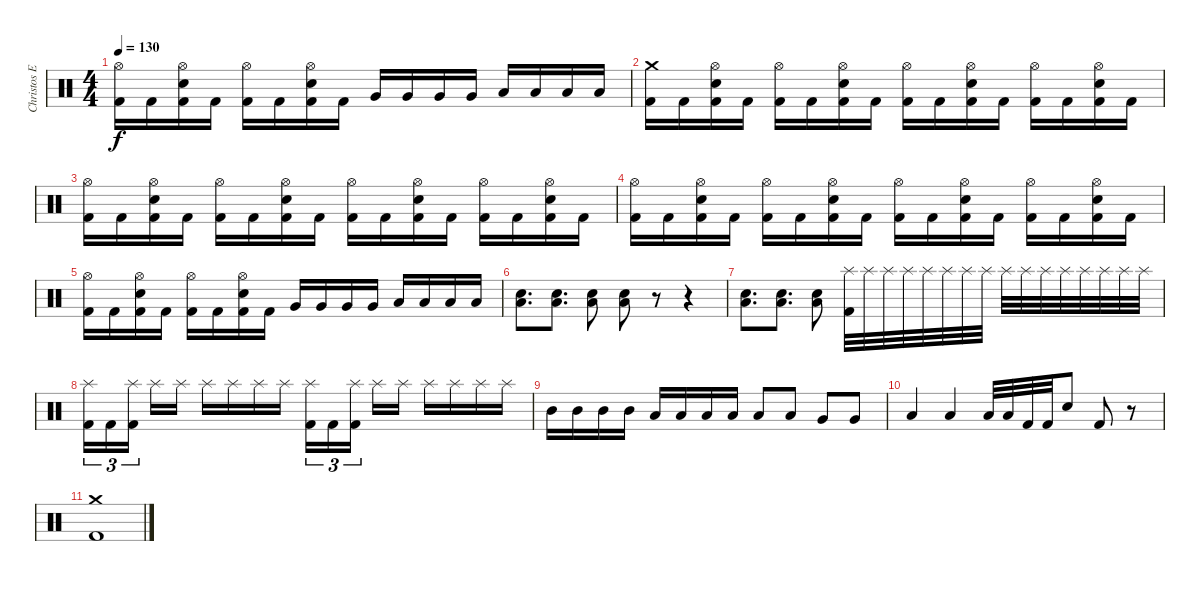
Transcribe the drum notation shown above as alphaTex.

\track ("Christos Efthimiadis" "Christos E") {instrument percussion}
\staff {score}
\articulation defaults
\ts (4 4)
\tempo 130
\clef neutral
\ks c
("Hi-Hat (open)" "Kick (hit) 2").16{dy f} "Kick (hit) 2".16 ("Snare (hit) 2" "Hi-Hat (open)" "Kick (hit) 2").16 "Kick (hit) 2".16 ("Hi-Hat (open)" "Kick (hit) 2").16 "Kick (hit) 2".16 ("Snare (hit) 2" "Hi-Hat (open)" "Kick (hit) 2").16 "Kick (hit) 2".16 "Very Low Tom (hit)".16 "Very Low Tom (hit)".16 "Very Low Tom (hit)".16 "Very Low Tom (hit)".16 "Low Floor Tom (hit)".16 "Low Floor Tom (hit)".16 "Low Floor Tom (hit)".16 "Low Floor Tom (hit)".16 |
("Crash medium (hit)" "Kick (hit) 2").16 "Kick (hit) 2".16 ("Snare (hit) 2" "Hi-Hat (open)" "Kick (hit) 2").16 "Kick (hit) 2".16 ("Hi-Hat (open)" "Kick (hit) 2").16 "Kick (hit) 2".16 ("Snare (hit) 2" "Hi-Hat (open)" "Kick (hit) 2").16 "Kick (hit) 2".16 ("Hi-Hat (open)" "Kick (hit) 2").16 "Kick (hit) 2".16 ("Snare (hit) 2" "Hi-Hat (open)" "Kick (hit) 2").16 "Kick (hit) 2".16 ("Hi-Hat (open)" "Kick (hit) 2").16 "Kick (hit) 2".16 ("Snare (hit) 2" "Hi-Hat (open)" "Kick (hit) 2").16 "Kick (hit) 2".16 |
("Hi-Hat (open)" "Kick (hit) 2").16 "Kick (hit) 2".16 ("Snare (hit) 2" "Hi-Hat (open)" "Kick (hit) 2").16 "Kick (hit) 2".16 ("Hi-Hat (open)" "Kick (hit) 2").16 "Kick (hit) 2".16 ("Snare (hit) 2" "Hi-Hat (open)" "Kick (hit) 2").16 "Kick (hit) 2".16 ("Hi-Hat (open)" "Kick (hit) 2").16 "Kick (hit) 2".16 ("Snare (hit) 2" "Hi-Hat (open)" "Kick (hit) 2").16 "Kick (hit) 2".16 ("Hi-Hat (open)" "Kick (hit) 2").16 "Kick (hit) 2".16 ("Snare (hit) 2" "Hi-Hat (open)" "Kick (hit) 2").16 "Kick (hit) 2".16 |
("Hi-Hat (open)" "Kick (hit) 2").16 "Kick (hit) 2".16 ("Snare (hit) 2" "Hi-Hat (open)" "Kick (hit) 2").16 "Kick (hit) 2".16 ("Hi-Hat (open)" "Kick (hit) 2").16 "Kick (hit) 2".16 ("Snare (hit) 2" "Hi-Hat (open)" "Kick (hit) 2").16 "Kick (hit) 2".16 ("Hi-Hat (open)" "Kick (hit) 2").16 "Kick (hit) 2".16 ("Snare (hit) 2" "Hi-Hat (open)" "Kick (hit) 2").16 "Kick (hit) 2".16 ("Hi-Hat (open)" "Kick (hit) 2").16 "Kick (hit) 2".16 ("Snare (hit) 2" "Hi-Hat (open)" "Kick (hit) 2").16 "Kick (hit) 2".16 |
("Hi-Hat (open)" "Kick (hit) 2").16 "Kick (hit) 2".16 ("Snare (hit) 2" "Hi-Hat (open)" "Kick (hit) 2").16 "Kick (hit) 2".16 ("Hi-Hat (open)" "Kick (hit) 2").16 "Kick (hit) 2".16 ("Snare (hit) 2" "Hi-Hat (open)" "Kick (hit) 2").16 "Kick (hit) 2".16 "Very Low Tom (hit)".16 "Very Low Tom (hit)".16 "Very Low Tom (hit)".16 "Very Low Tom (hit)".16 "Low Floor Tom (hit)".16 "Low Floor Tom (hit)".16 "Low Floor Tom (hit)".16 "Low Floor Tom (hit)".16 |
("Snare (hit) 2" "Low Floor Tom (hit)").8{d} ("Snare (hit) 2" "Low Floor Tom (hit)").8{d} ("Snare (hit) 2" "Low Floor Tom (hit)").8 ("Snare (hit) 2" "Low Floor Tom (hit)").8 r.8 r.4 |
("Snare (hit) 2" "Low Floor Tom (hit)").8{d} ("Snare (hit) 2" "Low Floor Tom (hit)").8{d} ("Snare (hit) 2" "Low Floor Tom (hit)").8 ("Splash (hit)" "Kick (hit) 2").32 "Splash (hit)".32 "Splash (hit)".32 "Splash (hit)".32 "Splash (hit)".32 "Splash (hit)".32 "Splash (hit)".32 "Splash (hit)".32 "Splash (hit)".32 "Splash (hit)".32 "Splash (hit)".32 "Splash (hit)".32 "Splash (hit)".32 "Splash (hit)".32 "Splash (hit)".32 "Splash (hit)".32 |
("Splash (hit)" "Kick (hit) 2").16{tu (3 2)} "Kick (hit) 2".16{tu (3 2)} ("Splash (hit)" "Kick (hit) 2").16{tu (3 2) beam splitsecondary} "Splash (hit)".16 "Splash (hit)".16 "Splash (hit)".16 "Splash (hit)".16 "Splash (hit)".16 "Splash (hit)".16 ("Splash (hit)" "Kick (hit) 2").16{tu (3 2)} "Kick (hit) 2".16{tu (3 2)} ("Splash (hit)" "Kick (hit) 2").16{tu (3 2) beam splitsecondary} "Splash (hit)".16 "Splash (hit)".16 "Splash (hit)".16 "Splash (hit)".16 "Splash (hit)".16 "Splash (hit)".16 |
"Mid Tom (hit)".16 "Mid Tom (hit)".16 "Mid Tom (hit)".16 "Mid Tom (hit)".16 "Low Tom (hit)".16 "Low Tom (hit)".16 "Low Tom (hit)".16 "Low Tom (hit)".16 "Low Tom (hit)".8 "Low Tom (hit)".8 "Very Low Tom (hit)".8 "Very Low Tom (hit)".8 |
"Low Floor Tom (hit)".4 "Low Floor Tom (hit)".4 "Low Tom (hit)".32 "Low Floor Tom (hit)".32 "Kick (hit) 2".32 "Kick (hit) 2".32 "Snare (hit) 2".8 "Kick (hit) 2".8 r.8 |
("Crash medium (hit)" "Kick (hit) 2").1
